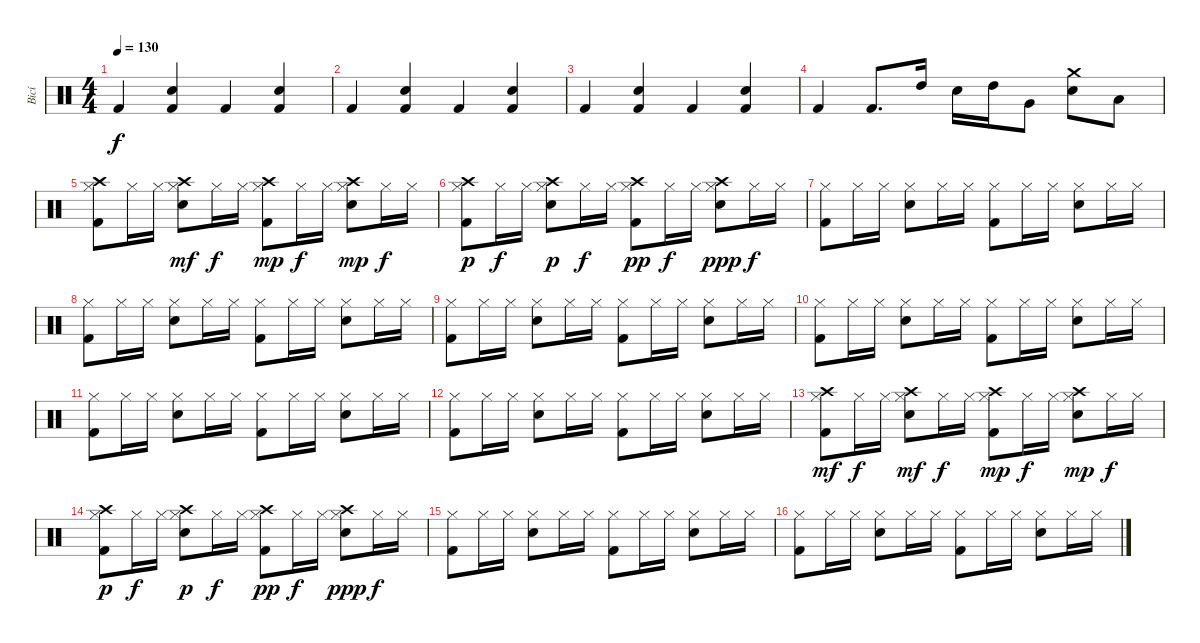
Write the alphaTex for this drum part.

\track ("Bicí" "Bicí") {instrument percussion}
\staff {score}
\articulation defaults
\ts (4 4)
\tempo 130
\clef neutral
\ks c "Kick (hit) 2".4{dy f}
("Hand Clap (hit)" "Kick (hit) 2").4 "Kick (hit) 2".4 ("Hand Clap (hit)" "Kick (hit) 2").4 |
"Kick (hit) 2".4 ("Hand Clap (hit)" "Kick (hit) 2").4 "Kick (hit) 2".4 ("Hand Clap (hit)" "Kick (hit) 2").4 |
"Kick (hit) 2".4 ("Hand Clap (hit)" "Kick (hit) 2").4 "Kick (hit) 2".4 ("Hand Clap (hit)" "Kick (hit) 2").4 |
"Kick (hit) 2".4 "Kick (hit) 2".8{d} "High Tom (hit)".16 "Electric Snare (hit)".16 "High Tom (hit)".16 "Very Low Tom (hit)".8 ("Electric Snare (hit)" "Crash medium (hit)").8 "Low Tom (hit)".8 |
("Kick (hit) 2" "Hi-Hat (closed)" "Crash high (hit)").8 "Hi-Hat (closed)".16 "Hi-Hat (closed)".16 ("Hi-Hat (closed)" "Snare (hit) 2" "Crash high (hit)").8{dy mf} "Hi-Hat (closed)".16{dy f} "Hi-Hat (closed)".16 ("Kick (hit) 2" "Hi-Hat (closed)" "Crash high (hit)").8{dy mp} "Hi-Hat (closed)".16{dy f} "Hi-Hat (closed)".16 ("Hi-Hat (closed)" "Snare (hit) 2" "Crash high (hit)").8{dy mp} "Hi-Hat (closed)".16{dy f} "Hi-Hat (closed)".16 |
("Kick (hit) 2" "Hi-Hat (closed)" "Crash high (hit)").8{dy p} "Hi-Hat (closed)".16{dy f} "Hi-Hat (closed)".16 ("Hi-Hat (closed)" "Snare (hit) 2" "Crash high (hit)").8{dy p} "Hi-Hat (closed)".16{dy f} "Hi-Hat (closed)".16 ("Kick (hit) 2" "Hi-Hat (closed)" "Crash high (hit)").8{dy pp} "Hi-Hat (closed)".16{dy f} "Hi-Hat (closed)".16 ("Hi-Hat (closed)" "Snare (hit) 2" "Crash high (hit)").8{dy ppp} "Hi-Hat (closed)".16{dy f} "Hi-Hat (closed)".16 |
("Kick (hit) 2" "Hi-Hat (closed)").8 "Hi-Hat (closed)".16 "Hi-Hat (closed)".16 ("Hi-Hat (closed)" "Snare (hit) 2").8 "Hi-Hat (closed)".16 "Hi-Hat (closed)".16 ("Kick (hit) 2" "Hi-Hat (closed)").8 "Hi-Hat (closed)".16 "Hi-Hat (closed)".16 ("Hi-Hat (closed)" "Snare (hit) 2").8 "Hi-Hat (closed)".16 "Hi-Hat (closed)".16 |
("Kick (hit) 2" "Hi-Hat (closed)").8 "Hi-Hat (closed)".16 "Hi-Hat (closed)".16 ("Hi-Hat (closed)" "Snare (hit) 2").8 "Hi-Hat (closed)".16 "Hi-Hat (closed)".16 ("Kick (hit) 2" "Hi-Hat (closed)").8 "Hi-Hat (closed)".16 "Hi-Hat (closed)".16 ("Hi-Hat (closed)" "Snare (hit) 2").8 "Hi-Hat (closed)".16 "Hi-Hat (closed)".16 |
("Kick (hit) 2" "Hi-Hat (closed)").8 "Hi-Hat (closed)".16 "Hi-Hat (closed)".16 ("Hi-Hat (closed)" "Snare (hit) 2").8 "Hi-Hat (closed)".16 "Hi-Hat (closed)".16 ("Kick (hit) 2" "Hi-Hat (closed)").8 "Hi-Hat (closed)".16 "Hi-Hat (closed)".16 ("Hi-Hat (closed)" "Snare (hit) 2").8 "Hi-Hat (closed)".16 "Hi-Hat (closed)".16 |
("Kick (hit) 2" "Hi-Hat (closed)").8 "Hi-Hat (closed)".16 "Hi-Hat (closed)".16 ("Hi-Hat (closed)" "Snare (hit) 2").8 "Hi-Hat (closed)".16 "Hi-Hat (closed)".16 ("Kick (hit) 2" "Hi-Hat (closed)").8 "Hi-Hat (closed)".16 "Hi-Hat (closed)".16 ("Hi-Hat (closed)" "Snare (hit) 2").8 "Hi-Hat (closed)".16 "Hi-Hat (closed)".16 |
("Kick (hit) 2" "Hi-Hat (closed)").8 "Hi-Hat (closed)".16 "Hi-Hat (closed)".16 ("Hi-Hat (closed)" "Snare (hit) 2").8 "Hi-Hat (closed)".16 "Hi-Hat (closed)".16 ("Kick (hit) 2" "Hi-Hat (closed)").8 "Hi-Hat (closed)".16 "Hi-Hat (closed)".16 ("Hi-Hat (closed)" "Snare (hit) 2").8 "Hi-Hat (closed)".16 "Hi-Hat (closed)".16 |
("Kick (hit) 2" "Hi-Hat (closed)").8 "Hi-Hat (closed)".16 "Hi-Hat (closed)".16 ("Hi-Hat (closed)" "Snare (hit) 2").8 "Hi-Hat (closed)".16 "Hi-Hat (closed)".16 ("Kick (hit) 2" "Hi-Hat (closed)").8 "Hi-Hat (closed)".16 "Hi-Hat (closed)".16 ("Hi-Hat (closed)" "Snare (hit) 2").8 "Hi-Hat (closed)".16 "Hi-Hat (closed)".16 |
("Kick (hit) 2" "Hi-Hat (closed)" "Crash high (hit)").8{dy mf} "Hi-Hat (closed)".16{dy f} "Hi-Hat (closed)".16 ("Hi-Hat (closed)" "Snare (hit) 2" "Crash high (hit)").8{dy mf} "Hi-Hat (closed)".16{dy f} "Hi-Hat (closed)".16 ("Kick (hit) 2" "Hi-Hat (closed)" "Crash high (hit)").8{dy mp} "Hi-Hat (closed)".16{dy f} "Hi-Hat (closed)".16 ("Hi-Hat (closed)" "Snare (hit) 2" "Crash high (hit)").8{dy mp} "Hi-Hat (closed)".16{dy f} "Hi-Hat (closed)".16 |
("Kick (hit) 2" "Hi-Hat (closed)" "Crash high (hit)").8{dy p} "Hi-Hat (closed)".16{dy f} "Hi-Hat (closed)".16 ("Hi-Hat (closed)" "Snare (hit) 2" "Crash high (hit)").8{dy p} "Hi-Hat (closed)".16{dy f} "Hi-Hat (closed)".16 ("Kick (hit) 2" "Hi-Hat (closed)" "Crash high (hit)").8{dy pp} "Hi-Hat (closed)".16{dy f} "Hi-Hat (closed)".16 ("Hi-Hat (closed)" "Snare (hit) 2" "Crash high (hit)").8{dy ppp} "Hi-Hat (closed)".16{dy f} "Hi-Hat (closed)".16 |
("Kick (hit) 2" "Hi-Hat (closed)").8 "Hi-Hat (closed)".16 "Hi-Hat (closed)".16 ("Hi-Hat (closed)" "Snare (hit) 2").8 "Hi-Hat (closed)".16 "Hi-Hat (closed)".16 ("Kick (hit) 2" "Hi-Hat (closed)").8 "Hi-Hat (closed)".16 "Hi-Hat (closed)".16 ("Hi-Hat (closed)" "Snare (hit) 2").8 "Hi-Hat (closed)".16 "Hi-Hat (closed)".16 |
("Kick (hit) 2" "Hi-Hat (closed)").8 "Hi-Hat (closed)".16 "Hi-Hat (closed)".16 ("Hi-Hat (closed)" "Snare (hit) 2").8 "Hi-Hat (closed)".16 "Hi-Hat (closed)".16 ("Kick (hit) 2" "Hi-Hat (closed)").8 "Hi-Hat (closed)".16 "Hi-Hat (closed)".16 ("Hi-Hat (closed)" "Snare (hit) 2").8 "Hi-Hat (closed)".16 "Hi-Hat (closed)".16
